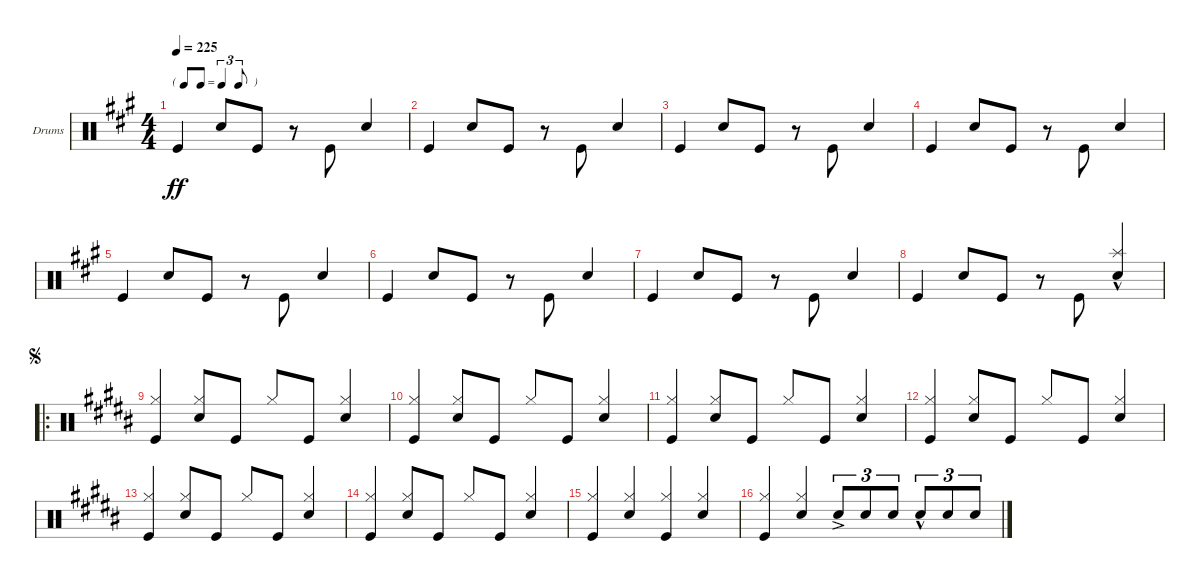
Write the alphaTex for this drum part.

\defaultSystemsLayout 4
\bracketExtendMode groupsimilarinstruments
\firstSystemTrackNameOrientation horizontal
\otherSystemsTrackNameOrientation horizontal
\track ("Drumkit" "Drums") {instrument percussion}
\staff {score}
\articulation defaults
\ts (4 4)
\tf triplet8th
\tempo 225
\clef neutral
\ks a "Kick (hit)".4{dy ff} "Snare (hit) 2".8 "Kick (hit)".8
r.8 "Kick (hit)".8 "Snare (hit) 2".4{beam invert} |
"Kick (hit)".4 "Snare (hit) 2".8 "Kick (hit)".8 r.8 "Kick (hit)".8 "Snare (hit) 2".4{beam invert} |
"Kick (hit)".4 "Snare (hit) 2".8 "Kick (hit)".8 r.8 "Kick (hit)".8 "Snare (hit) 2".4{beam invert} |
"Kick (hit)".4 "Snare (hit) 2".8 "Kick (hit)".8 r.8 "Kick (hit)".8 "Snare (hit) 2".4{beam invert} |
"Kick (hit)".4 "Snare (hit) 2".8 "Kick (hit)".8 r.8 "Kick (hit)".8 "Snare (hit) 2".4{beam invert} |
"Kick (hit)".4 "Snare (hit) 2".8 "Kick (hit)".8 r.8 "Kick (hit)".8 "Snare (hit) 2".4{beam invert} |
"Kick (hit)".4 "Snare (hit) 2".8 "Kick (hit)".8 r.8 "Kick (hit)".8 "Snare (hit) 2".4{beam invert} |
"Kick (hit)".4 "Snare (hit) 2".8 "Kick (hit)".8 r.8 "Kick (hit)".8 ("Snare (hit) 2" "Splash (hit)"{hac}).4{beam invert} |
\ro
\jump segno
\ks b
("Kick (hit)" "Hi-Hat (closed)").4 ("Snare (hit) 2" "Hi-Hat (closed)").8{beam invert} "Kick (hit)".8 "Hi-Hat (closed)".8{beam invert} "Kick (hit)".8 ("Snare (hit) 2" "Hi-Hat (closed)").4{beam invert} |
("Kick (hit)" "Hi-Hat (closed)").4 ("Snare (hit) 2" "Hi-Hat (closed)").8{beam invert} "Kick (hit)".8 "Hi-Hat (closed)".8{beam invert} "Kick (hit)".8 ("Snare (hit) 2" "Hi-Hat (closed)").4{beam invert} |
("Kick (hit)" "Hi-Hat (closed)").4 ("Snare (hit) 2" "Hi-Hat (closed)").8{beam invert} "Kick (hit)".8 "Hi-Hat (closed)".8{beam invert} "Kick (hit)".8 ("Snare (hit) 2" "Hi-Hat (closed)").4{beam invert} |
("Kick (hit)" "Hi-Hat (closed)").4 ("Snare (hit) 2" "Hi-Hat (closed)").8{beam invert} "Kick (hit)".8 "Hi-Hat (closed)".8{beam invert} "Kick (hit)".8 ("Snare (hit) 2" "Hi-Hat (closed)").4{beam invert} |
("Kick (hit)" "Hi-Hat (closed)").4 ("Snare (hit) 2" "Hi-Hat (closed)").8{beam invert} "Kick (hit)".8 "Hi-Hat (closed)".8{beam invert} "Kick (hit)".8 ("Snare (hit) 2" "Hi-Hat (closed)").4{beam invert} |
("Kick (hit)" "Hi-Hat (closed)").4 ("Snare (hit) 2" "Hi-Hat (closed)").8{beam invert} "Kick (hit)".8 "Hi-Hat (closed)".8{beam invert} "Kick (hit)".8 ("Snare (hit) 2" "Hi-Hat (closed)").4{beam invert} |
("Kick (hit)" "Hi-Hat (closed)").4 ("Snare (hit) 2" "Hi-Hat (closed)").4{beam invert} ("Kick (hit)" "Hi-Hat (closed)").4 ("Snare (hit) 2" "Hi-Hat (closed)").4{beam invert} |
("Kick (hit)" "Hi-Hat (closed)").4 ("Snare (hit) 2" "Hi-Hat (closed)").4{beam invert} "Snare (hit) 2"{ac}.8{tu (3 2) beam invert} "Snare (hit) 2".8{tu (3 2)} "Snare (hit) 2".8{tu (3 2)} "Snare (hit) 2"{hac}.8{tu (3 2) beam invert} "Snare (hit) 2".8{tu (3 2)} "Snare (hit) 2".8{tu (3 2)}
